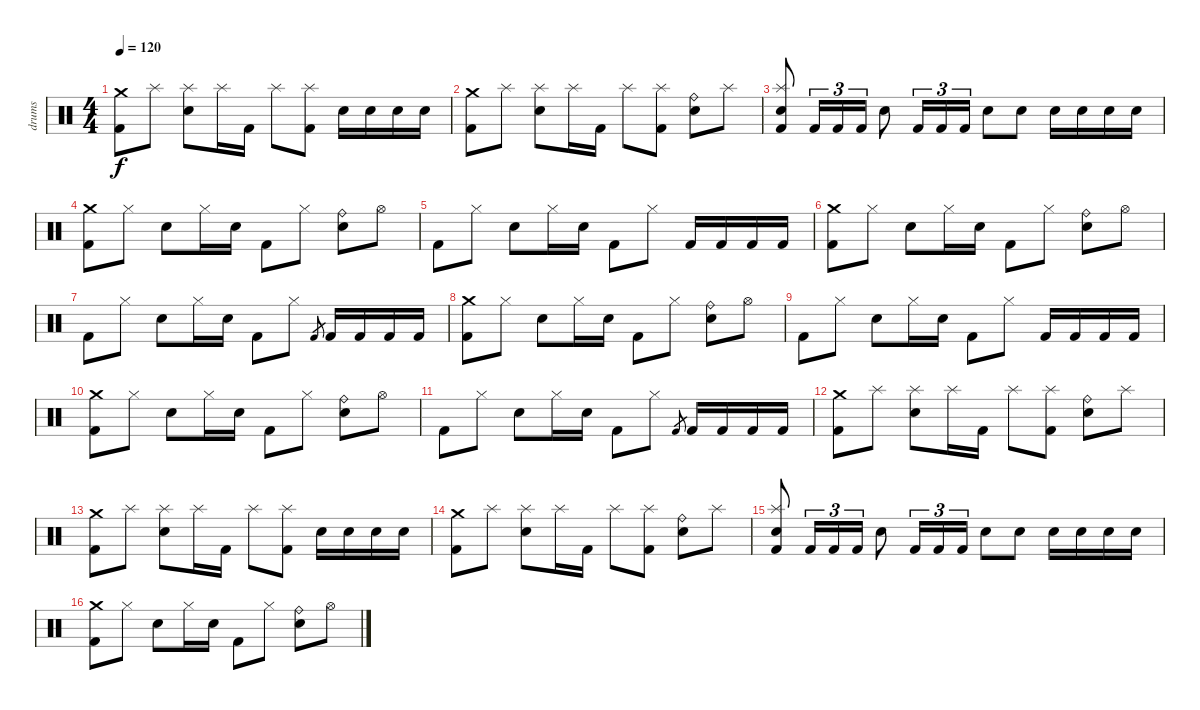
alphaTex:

\track ("drums" "drums") {instrument percussion}
\staff {score}
\articulation defaults
\ts (4 4)
\tempo 120
\clef neutral
\ks c
("Crash medium (hit)" "Kick (hit) 2").8{dy f} "Splash (hit)".8 ("Splash (hit)" "Electric Snare (hit)").8 "Splash (hit)".16 "Kick (hit) 2".16 "Splash (hit)".8 ("Splash (hit)" "Kick (hit) 2").8 "Electric Snare (hit)".16 "Electric Snare (hit)".16 "Electric Snare (hit)".16 "Electric Snare (hit)".16 |
("Crash medium (hit)" "Kick (hit) 2").8 "Splash (hit)".8 ("Splash (hit)" "Electric Snare (hit)").8 "Splash (hit)".16 "Kick (hit) 2".16 "Splash (hit)".8 ("Splash (hit)" "Kick (hit) 2").8 ("Ride (bell)" "Electric Snare (hit)").8 "Splash (hit)".8 |
("Splash (hit)" "Electric Snare (hit)" "Kick (hit) 2").8 "Kick (hit) 2".16{tu (3 2)} "Kick (hit) 2".16{tu (3 2)} "Kick (hit) 2".16{tu (3 2)} "Electric Snare (hit)".8 "Kick (hit) 2".16{tu (3 2)} "Kick (hit) 2".16{tu (3 2)} "Kick (hit) 2".16{tu (3 2)} "Electric Snare (hit)".8 "Electric Snare (hit)".8 "Electric Snare (hit)".16 "Electric Snare (hit)".16 "Electric Snare (hit)".16 "Electric Snare (hit)".16 |
("Crash medium (hit)" "Kick (hit) 2").8 "Hi-Hat (closed)".8 "Electric Snare (hit)".8 "Hi-Hat (closed)".16 "Electric Snare (hit)".16 "Kick (hit) 2".8 "Hi-Hat (closed)".8 ("Ride (bell)" "Electric Snare (hit)").8 "Hi-Hat (open)".8 |
"Kick (hit) 2".8 "Hi-Hat (closed)".8 "Electric Snare (hit)".8 "Hi-Hat (closed)".16 "Electric Snare (hit)".16 "Kick (hit) 2".8 "Hi-Hat (closed)".8 "Kick (hit) 2".16 "Kick (hit) 2".16 "Kick (hit) 2".16 "Kick (hit) 2".16 |
("Crash medium (hit)" "Kick (hit) 2").8 "Hi-Hat (closed)".8 "Electric Snare (hit)".8 "Hi-Hat (closed)".16 "Electric Snare (hit)".16 "Kick (hit) 2".8 "Hi-Hat (closed)".8 ("Ride (bell)" "Electric Snare (hit)").8 "Hi-Hat (open)".8 |
"Kick (hit) 2".8 "Hi-Hat (closed)".8 "Electric Snare (hit)".8 "Hi-Hat (closed)".16 "Electric Snare (hit)".16 "Kick (hit) 2".8 "Hi-Hat (closed)".8 "Kick (hit) 2".8{gr} "Kick (hit) 2".16 "Kick (hit) 2".16 "Kick (hit) 2".16 "Kick (hit) 2".16 |
("Crash medium (hit)" "Kick (hit) 2").8 "Hi-Hat (closed)".8 "Electric Snare (hit)".8 "Hi-Hat (closed)".16 "Electric Snare (hit)".16 "Kick (hit) 2".8 "Hi-Hat (closed)".8 ("Ride (bell)" "Electric Snare (hit)").8 "Hi-Hat (open)".8 |
"Kick (hit) 2".8 "Hi-Hat (closed)".8 "Electric Snare (hit)".8 "Hi-Hat (closed)".16 "Electric Snare (hit)".16 "Kick (hit) 2".8 "Hi-Hat (closed)".8 "Kick (hit) 2".16 "Kick (hit) 2".16 "Kick (hit) 2".16 "Kick (hit) 2".16 |
("Crash medium (hit)" "Kick (hit) 2").8 "Hi-Hat (closed)".8 "Electric Snare (hit)".8 "Hi-Hat (closed)".16 "Electric Snare (hit)".16 "Kick (hit) 2".8 "Hi-Hat (closed)".8 ("Ride (bell)" "Electric Snare (hit)").8 "Hi-Hat (open)".8 |
"Kick (hit) 2".8 "Hi-Hat (closed)".8 "Electric Snare (hit)".8 "Hi-Hat (closed)".16 "Electric Snare (hit)".16 "Kick (hit) 2".8 "Hi-Hat (closed)".8 "Kick (hit) 2".8{gr} "Kick (hit) 2".16 "Kick (hit) 2".16 "Kick (hit) 2".16 "Kick (hit) 2".16 |
("Crash medium (hit)" "Kick (hit) 2").8 "Splash (hit)".8 ("Splash (hit)" "Electric Snare (hit)").8 "Splash (hit)".16 "Kick (hit) 2".16 "Splash (hit)".8 ("Splash (hit)" "Kick (hit) 2").8 ("Ride (bell)" "Electric Snare (hit)").8 "Splash (hit)".8 |
("Crash medium (hit)" "Kick (hit) 2").8 "Splash (hit)".8 ("Splash (hit)" "Electric Snare (hit)").8 "Splash (hit)".16 "Kick (hit) 2".16 "Splash (hit)".8 ("Splash (hit)" "Kick (hit) 2").8 "Electric Snare (hit)".16 "Electric Snare (hit)".16 "Electric Snare (hit)".16 "Electric Snare (hit)".16 |
("Crash medium (hit)" "Kick (hit) 2").8 "Splash (hit)".8 ("Splash (hit)" "Electric Snare (hit)").8 "Splash (hit)".16 "Kick (hit) 2".16 "Splash (hit)".8 ("Splash (hit)" "Kick (hit) 2").8 ("Ride (bell)" "Electric Snare (hit)").8 "Splash (hit)".8 |
("Splash (hit)" "Electric Snare (hit)" "Kick (hit) 2").8 "Kick (hit) 2".16{tu (3 2)} "Kick (hit) 2".16{tu (3 2)} "Kick (hit) 2".16{tu (3 2)} "Electric Snare (hit)".8 "Kick (hit) 2".16{tu (3 2)} "Kick (hit) 2".16{tu (3 2)} "Kick (hit) 2".16{tu (3 2)} "Electric Snare (hit)".8 "Electric Snare (hit)".8 "Electric Snare (hit)".16 "Electric Snare (hit)".16 "Electric Snare (hit)".16 "Electric Snare (hit)".16 |
("Crash medium (hit)" "Kick (hit) 2").8 "Hi-Hat (closed)".8 "Electric Snare (hit)".8 "Hi-Hat (closed)".16 "Electric Snare (hit)".16 "Kick (hit) 2".8 "Hi-Hat (closed)".8 ("Ride (bell)" "Electric Snare (hit)").8 "Hi-Hat (open)".8
